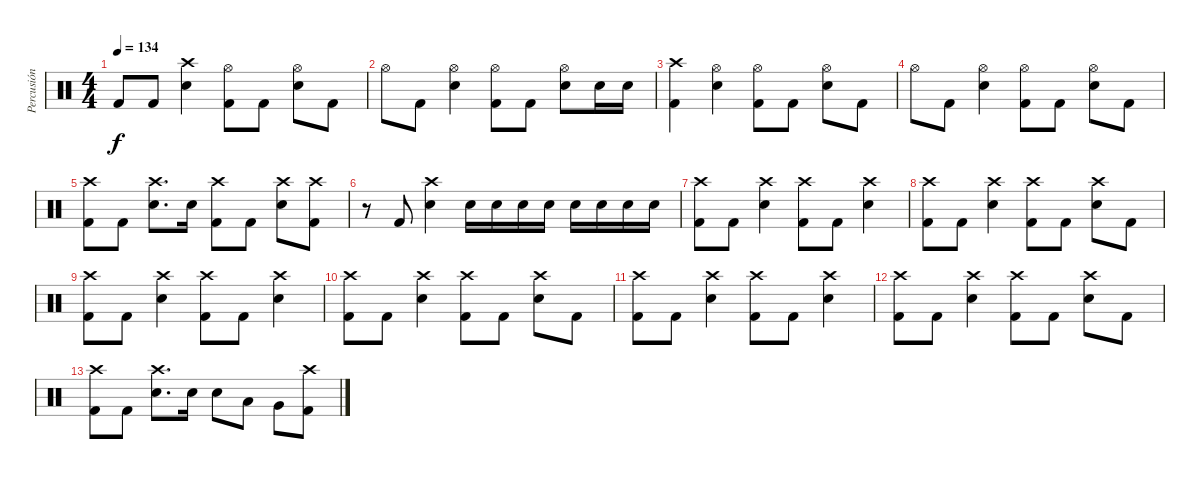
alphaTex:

\track ("Percusión" "Percusión") {instrument percussion}
\staff {score}
\articulation defaults
\ts (4 4)
\tempo 134
\clef neutral
\ks c "Kick (hit) 2".8{dy f} "Kick (hit) 2".8
("Crash high (hit)" "Electric Snare (hit)").4 ("Hi-Hat (open)" "Kick (hit) 2").8 "Kick (hit) 2".8 ("Hi-Hat (open)" "Electric Snare (hit)").8 "Kick (hit) 2".8 |
"Hi-Hat (open)".8 "Kick (hit) 2".8 ("Hi-Hat (open)" "Electric Snare (hit)").4 ("Hi-Hat (open)" "Kick (hit) 2").8 "Kick (hit) 2".8 ("Hi-Hat (open)" "Electric Snare (hit)").8 "Electric Snare (hit)".16 "Electric Snare (hit)".16 |
("Crash high (hit)" "Kick (hit) 2").4 ("Hi-Hat (open)" "Electric Snare (hit)").4 ("Hi-Hat (open)" "Kick (hit) 2").8 "Kick (hit) 2".8 ("Hi-Hat (open)" "Electric Snare (hit)").8 "Kick (hit) 2".8 |
"Hi-Hat (open)".8 "Kick (hit) 2".8 ("Hi-Hat (open)" "Electric Snare (hit)").4 ("Hi-Hat (open)" "Kick (hit) 2").8 "Kick (hit) 2".8 ("Hi-Hat (open)" "Electric Snare (hit)").8 "Kick (hit) 2".8 |
("Crash high (hit)" "Kick (hit) 2").8 "Kick (hit) 2".8 ("Crash high (hit)" "Electric Snare (hit)").8{d} "Electric Snare (hit)".16 ("Crash high (hit)" "Kick (hit) 2").8 "Kick (hit) 2".8 ("Crash high (hit)" "Electric Snare (hit)").8 ("Crash high (hit)" "Kick (hit) 2").8 |
r.8 "Kick (hit) 2".8 ("Crash high (hit)" "Electric Snare (hit)").4 "Electric Snare (hit)".16 "Electric Snare (hit)".16 "Electric Snare (hit)".16 "Electric Snare (hit)".16 "Electric Snare (hit)".16 "Electric Snare (hit)".16 "Electric Snare (hit)".16 "Electric Snare (hit)".16 |
("Crash high (hit)" "Kick (hit) 2").8 "Kick (hit) 2".8 ("Crash high (hit)" "Electric Snare (hit)").4 ("Crash high (hit)" "Kick (hit) 2").8 "Kick (hit) 2".8 ("Crash high (hit)" "Electric Snare (hit)").4 |
("Crash high (hit)" "Kick (hit) 2").8 "Kick (hit) 2".8 ("Crash high (hit)" "Electric Snare (hit)").4 ("Crash high (hit)" "Kick (hit) 2").8 "Kick (hit) 2".8 ("Crash high (hit)" "Electric Snare (hit)").8 "Kick (hit) 2".8 |
("Crash high (hit)" "Kick (hit) 2").8 "Kick (hit) 2".8 ("Crash high (hit)" "Electric Snare (hit)").4 ("Crash high (hit)" "Kick (hit) 2").8 "Kick (hit) 2".8 ("Crash high (hit)" "Electric Snare (hit)").4 |
("Crash high (hit)" "Kick (hit) 2").8 "Kick (hit) 2".8 ("Crash high (hit)" "Electric Snare (hit)").4 ("Crash high (hit)" "Kick (hit) 2").8 "Kick (hit) 2".8 ("Crash high (hit)" "Electric Snare (hit)").8 "Kick (hit) 2".8 |
("Crash high (hit)" "Kick (hit) 2").8 "Kick (hit) 2".8 ("Crash high (hit)" "Electric Snare (hit)").4 ("Crash high (hit)" "Kick (hit) 2").8 "Kick (hit) 2".8 ("Crash high (hit)" "Electric Snare (hit)").4 |
("Crash high (hit)" "Kick (hit) 2").8 "Kick (hit) 2".8 ("Crash high (hit)" "Electric Snare (hit)").4 ("Crash high (hit)" "Kick (hit) 2").8 "Kick (hit) 2".8 ("Crash high (hit)" "Electric Snare (hit)").8 "Kick (hit) 2".8 |
("Crash high (hit)" "Kick (hit) 2").8 "Kick (hit) 2".8 ("Crash high (hit)" "Electric Snare (hit)").8{d} "Electric Snare (hit)".16 "Electric Snare (hit)".8 "Low Tom (hit)".8 "Very Low Tom (hit)".8 ("Crash high (hit)" "Kick (hit) 2").8
